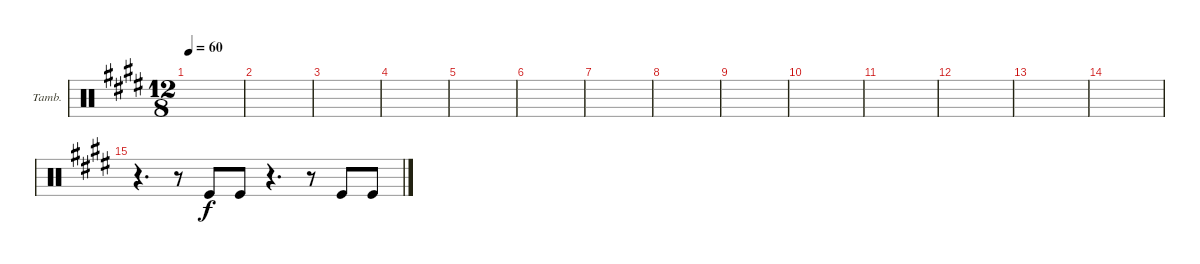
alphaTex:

\defaultSystemsLayout 4
\bracketExtendMode groupsimilarinstruments
\firstSystemTrackNameOrientation horizontal
\otherSystemsTrackNameOrientation horizontal
\track ("Tambourine" "Tamb.") {instrument percussion}
\staff {score}
\articulation defaults
\ts (12 8)
\tempo 60
\clef neutral
\scale
0.540984
\ks e
|
\scale
0.229508 |
\scale
0.229508 |
\scale
0.333333 |
\scale
0.333333 |
\scale
0.333333 |
\scale
0.333333 |
\scale
0.333333 |
\scale
0.333333 |
\scale
0.333333 |
\scale
0.333333 |
\scale
0.333333 |
\scale
0.333333 |
\scale
0.333333 |
\scale
0.333333 r.4{d} r.8 "Kick (hit)".8 "Kick (hit)".8 r.4{d} r.8 "Kick (hit)".8 "Kick (hit)".8
